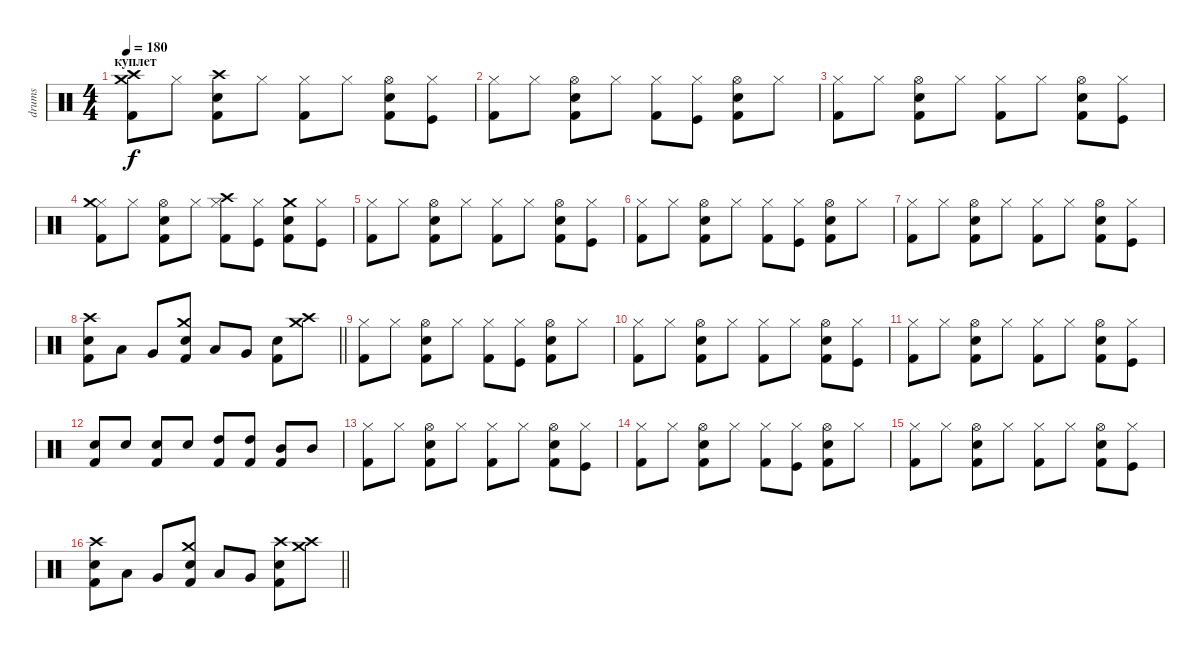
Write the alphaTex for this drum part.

\track ("drums" "drums") {instrument percussion}
\staff {score}
\articulation defaults
\ts (4 4)
\section ("" "куплет")
\tempo 180
\clef neutral
\ks c
("Crash high (hit)" "Kick (hit) 2" "Crash medium (hit)").8{dy f} "Hi-Hat (closed)".8 ("Electric Snare (hit)" "Kick (hit) 2" "Crash high (hit)").8 "Hi-Hat (closed)".8 ("Hi-Hat (closed)" "Kick (hit) 2").8 "Hi-Hat (closed)".8 ("Hi-Hat (open)" "Electric Snare (hit)" "Kick (hit) 2").8 ("Hi-Hat (closed)" "Kick (hit)").8 |
("Hi-Hat (closed)" "Kick (hit) 2").8 "Hi-Hat (closed)".8 ("Hi-Hat (open)" "Electric Snare (hit)" "Kick (hit) 2").8 "Hi-Hat (closed)".8 ("Hi-Hat (closed)" "Kick (hit) 2").8 ("Hi-Hat (closed)" "Kick (hit)").8 ("Hi-Hat (open)" "Electric Snare (hit)" "Kick (hit) 2").8 "Hi-Hat (closed)".8 |
("Hi-Hat (closed)" "Kick (hit) 2").8 "Hi-Hat (closed)".8 ("Hi-Hat (open)" "Electric Snare (hit)" "Kick (hit) 2").8 "Hi-Hat (closed)".8 ("Hi-Hat (closed)" "Kick (hit) 2").8 "Hi-Hat (closed)".8 ("Hi-Hat (open)" "Electric Snare (hit)" "Kick (hit) 2").8 ("Hi-Hat (closed)" "Kick (hit)").8 |
("Hi-Hat (closed)" "Crash medium (hit)" "Kick (hit) 2").8 "Hi-Hat (closed)".8 ("Hi-Hat (open)" "Electric Snare (hit)" "Kick (hit) 2").8 "Hi-Hat (closed)".8 ("Hi-Hat (closed)" "Kick (hit) 2" "Crash high (hit)").8 ("Hi-Hat (closed)" "Kick (hit)").8 ("Crash medium (hit)" "Electric Snare (hit)" "Kick (hit) 2").8 ("Hi-Hat (closed)" "Kick (hit)").8 |
("Hi-Hat (closed)" "Kick (hit) 2").8 "Hi-Hat (closed)".8 ("Hi-Hat (open)" "Electric Snare (hit)" "Kick (hit) 2").8 "Hi-Hat (closed)".8 ("Hi-Hat (closed)" "Kick (hit) 2").8 "Hi-Hat (closed)".8 ("Hi-Hat (open)" "Electric Snare (hit)" "Kick (hit) 2").8 ("Hi-Hat (closed)" "Kick (hit)").8 |
("Hi-Hat (closed)" "Kick (hit) 2").8 "Hi-Hat (closed)".8 ("Hi-Hat (open)" "Electric Snare (hit)" "Kick (hit) 2").8 "Hi-Hat (closed)".8 ("Hi-Hat (closed)" "Kick (hit) 2").8 ("Hi-Hat (closed)" "Kick (hit)").8 ("Hi-Hat (open)" "Electric Snare (hit)" "Kick (hit) 2").8 "Hi-Hat (closed)".8 |
("Hi-Hat (closed)" "Kick (hit) 2").8 "Hi-Hat (closed)".8 ("Hi-Hat (open)" "Electric Snare (hit)" "Kick (hit) 2").8 "Hi-Hat (closed)".8 ("Hi-Hat (closed)" "Kick (hit) 2").8 "Hi-Hat (closed)".8 ("Hi-Hat (open)" "Electric Snare (hit)" "Kick (hit) 2").8 ("Hi-Hat (closed)" "Kick (hit)").8 |
\barLineRight lightlight
("Crash high (hit)" "Electric Snare (hit)" "Kick (hit) 2").8 "Low Tom (hit)".8 "Very Low Tom (hit)".8 ("Crash medium (hit)" "Electric Snare (hit)" "Kick (hit) 2").8 "Low Tom (hit)".8 "Very Low Tom (hit)".8 ("Electric Snare (hit)" "Kick (hit) 2").8 ("Crash medium (hit)" "Crash high (hit)").8 |
("Hi-Hat (closed)" "Kick (hit) 2").8 "Hi-Hat (closed)".8 ("Hi-Hat (open)" "Electric Snare (hit)" "Kick (hit) 2").8 "Hi-Hat (closed)".8 ("Hi-Hat (closed)" "Kick (hit) 2").8 ("Hi-Hat (closed)" "Kick (hit)").8 ("Hi-Hat (open)" "Electric Snare (hit)" "Kick (hit) 2").8 "Hi-Hat (closed)".8 |
("Hi-Hat (closed)" "Kick (hit) 2").8 "Hi-Hat (closed)".8 ("Hi-Hat (open)" "Electric Snare (hit)" "Kick (hit) 2").8 "Hi-Hat (closed)".8 ("Hi-Hat (closed)" "Kick (hit) 2").8 "Hi-Hat (closed)".8 ("Hi-Hat (open)" "Electric Snare (hit)" "Kick (hit) 2").8 ("Hi-Hat (closed)" "Kick (hit)").8 |
("Hi-Hat (closed)" "Kick (hit) 2").8 "Hi-Hat (closed)".8 ("Hi-Hat (open)" "Electric Snare (hit)" "Kick (hit) 2").8 "Hi-Hat (closed)".8 ("Hi-Hat (closed)" "Kick (hit) 2").8 "Hi-Hat (closed)".8 ("Hi-Hat (open)" "Electric Snare (hit)" "Kick (hit) 2").8 ("Hi-Hat (closed)" "Kick (hit)").8 |
("Snare (hit) 2" "Kick (hit) 2").8 "Snare (hit) 2".8 ("Snare (hit) 2" "Kick (hit) 2").8 "Snare (hit) 2".8 ("High Tom (hit)" "Kick (hit) 2").8 ("High Tom (hit)" "Kick (hit) 2").8 ("Mid Tom (hit)" "Kick (hit) 2").8 "Mid Tom (hit)".8 |
("Hi-Hat (closed)" "Kick (hit) 2").8 "Hi-Hat (closed)".8 ("Hi-Hat (open)" "Electric Snare (hit)" "Kick (hit) 2").8 "Hi-Hat (closed)".8 ("Hi-Hat (closed)" "Kick (hit) 2").8 "Hi-Hat (closed)".8 ("Hi-Hat (open)" "Electric Snare (hit)" "Kick (hit) 2").8 ("Hi-Hat (closed)" "Kick (hit)").8 |
("Hi-Hat (closed)" "Kick (hit) 2").8 "Hi-Hat (closed)".8 ("Hi-Hat (open)" "Electric Snare (hit)" "Kick (hit) 2").8 "Hi-Hat (closed)".8 ("Hi-Hat (closed)" "Kick (hit) 2").8 ("Hi-Hat (closed)" "Kick (hit)").8 ("Hi-Hat (open)" "Electric Snare (hit)" "Kick (hit) 2").8 "Hi-Hat (closed)".8 |
("Hi-Hat (closed)" "Kick (hit) 2").8 "Hi-Hat (closed)".8 ("Hi-Hat (open)" "Electric Snare (hit)" "Kick (hit) 2").8 "Hi-Hat (closed)".8 ("Hi-Hat (closed)" "Kick (hit) 2").8 "Hi-Hat (closed)".8 ("Hi-Hat (open)" "Electric Snare (hit)" "Kick (hit) 2").8 ("Hi-Hat (closed)" "Kick (hit)").8 |
\barLineRight lightlight
("Crash high (hit)" "Electric Snare (hit)" "Kick (hit) 2").8 "Low Tom (hit)".8 "Very Low Tom (hit)".8 ("Crash medium (hit)" "Electric Snare (hit)" "Kick (hit) 2").8 "Low Tom (hit)".8 "Very Low Tom (hit)".8 ("Crash high (hit)" "Electric Snare (hit)" "Kick (hit) 2").8 ("Crash medium (hit)" "Crash high (hit)").8
